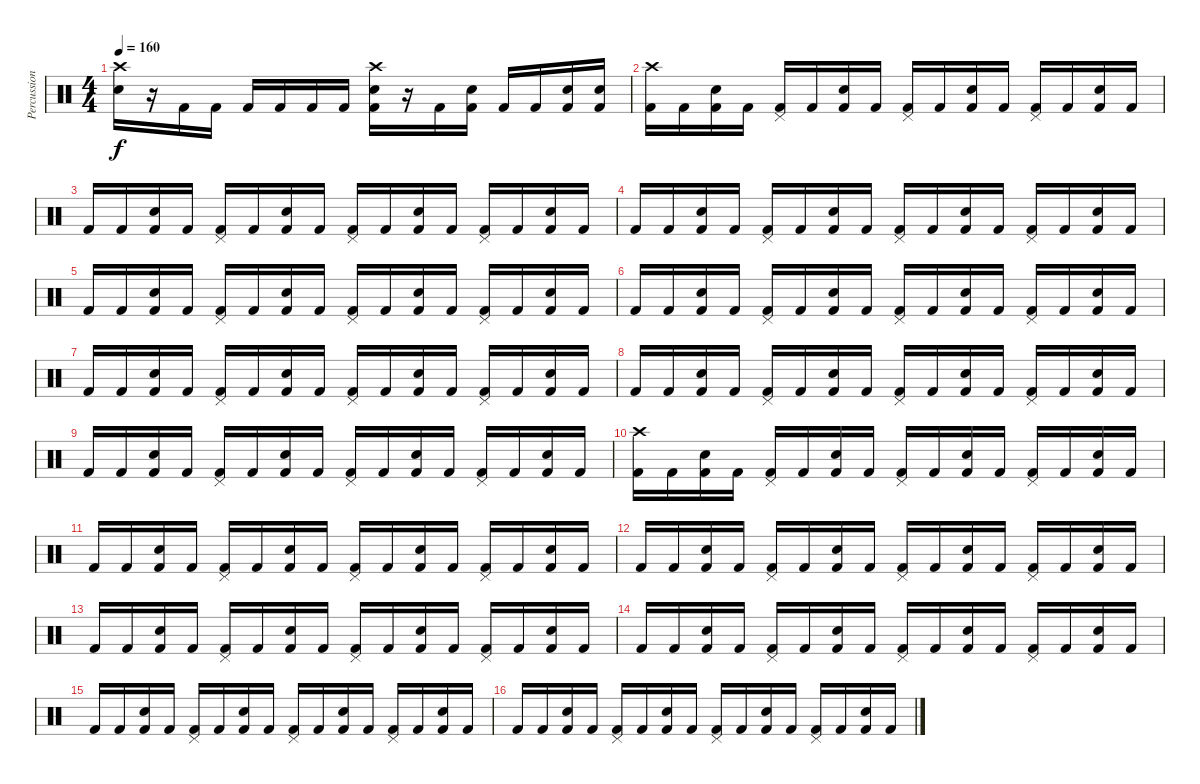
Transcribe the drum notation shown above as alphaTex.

\track ("Percussions" "Percussion") {instrument percussion}
\staff {score}
\articulation defaults
\ts (4 4)
\tempo 160
\clef neutral
\ks c
("Crash high (hit)" "Electric Snare (hit)").16{dy f} r.16 "Kick (hit) 2".16 "Kick (hit) 2".16 "Kick (hit) 2".16 "Kick (hit) 2".16 "Kick (hit) 2".16 "Kick (hit) 2".16 ("Crash high (hit)" "Electric Snare (hit)" "Kick (hit) 2").16 r.16 "Kick (hit) 2".16 ("Electric Snare (hit)" "Kick (hit) 2").16 "Kick (hit) 2".16 "Kick (hit) 2".16 ("Electric Snare (hit)" "Kick (hit) 2").16 ("Electric Snare (hit)" "Kick (hit) 2").16 |
("Kick (hit) 2" "Crash high (hit)").16 "Kick (hit) 2".16 ("Electric Snare (hit)" "Kick (hit) 2").16 "Kick (hit) 2".16 ("Pedal Hi-Hat (hit)" "Kick (hit) 2").16 "Kick (hit) 2".16 ("Electric Snare (hit)" "Kick (hit) 2").16 "Kick (hit) 2".16 ("Pedal Hi-Hat (hit)" "Kick (hit) 2").16 "Kick (hit) 2".16 ("Electric Snare (hit)" "Kick (hit) 2").16 "Kick (hit) 2".16 ("Pedal Hi-Hat (hit)" "Kick (hit) 2").16 "Kick (hit) 2".16 ("Electric Snare (hit)" "Kick (hit) 2").16 "Kick (hit) 2".16 |
"Kick (hit) 2".16 "Kick (hit) 2".16 ("Electric Snare (hit)" "Kick (hit) 2").16 "Kick (hit) 2".16 ("Pedal Hi-Hat (hit)" "Kick (hit) 2").16 "Kick (hit) 2".16 ("Electric Snare (hit)" "Kick (hit) 2").16 "Kick (hit) 2".16 ("Pedal Hi-Hat (hit)" "Kick (hit) 2").16 "Kick (hit) 2".16 ("Electric Snare (hit)" "Kick (hit) 2").16 "Kick (hit) 2".16 ("Pedal Hi-Hat (hit)" "Kick (hit) 2").16 "Kick (hit) 2".16 ("Electric Snare (hit)" "Kick (hit) 2").16 "Kick (hit) 2".16 |
"Kick (hit) 2".16 "Kick (hit) 2".16 ("Electric Snare (hit)" "Kick (hit) 2").16 "Kick (hit) 2".16 ("Pedal Hi-Hat (hit)" "Kick (hit) 2").16 "Kick (hit) 2".16 ("Electric Snare (hit)" "Kick (hit) 2").16 "Kick (hit) 2".16 ("Pedal Hi-Hat (hit)" "Kick (hit) 2").16 "Kick (hit) 2".16 ("Electric Snare (hit)" "Kick (hit) 2").16 "Kick (hit) 2".16 ("Pedal Hi-Hat (hit)" "Kick (hit) 2").16 "Kick (hit) 2".16 ("Electric Snare (hit)" "Kick (hit) 2").16 "Kick (hit) 2".16 |
"Kick (hit) 2".16 "Kick (hit) 2".16 ("Electric Snare (hit)" "Kick (hit) 2").16 "Kick (hit) 2".16 ("Pedal Hi-Hat (hit)" "Kick (hit) 2").16 "Kick (hit) 2".16 ("Electric Snare (hit)" "Kick (hit) 2").16 "Kick (hit) 2".16 ("Pedal Hi-Hat (hit)" "Kick (hit) 2").16 "Kick (hit) 2".16 ("Electric Snare (hit)" "Kick (hit) 2").16 "Kick (hit) 2".16 ("Pedal Hi-Hat (hit)" "Kick (hit) 2").16 "Kick (hit) 2".16 ("Electric Snare (hit)" "Kick (hit) 2").16 "Kick (hit) 2".16 |
"Kick (hit) 2".16 "Kick (hit) 2".16 ("Electric Snare (hit)" "Kick (hit) 2").16 "Kick (hit) 2".16 ("Pedal Hi-Hat (hit)" "Kick (hit) 2").16 "Kick (hit) 2".16 ("Electric Snare (hit)" "Kick (hit) 2").16 "Kick (hit) 2".16 ("Pedal Hi-Hat (hit)" "Kick (hit) 2").16 "Kick (hit) 2".16 ("Electric Snare (hit)" "Kick (hit) 2").16 "Kick (hit) 2".16 ("Pedal Hi-Hat (hit)" "Kick (hit) 2").16 "Kick (hit) 2".16 ("Electric Snare (hit)" "Kick (hit) 2").16 "Kick (hit) 2".16 |
"Kick (hit) 2".16 "Kick (hit) 2".16 ("Electric Snare (hit)" "Kick (hit) 2").16 "Kick (hit) 2".16 ("Pedal Hi-Hat (hit)" "Kick (hit) 2").16 "Kick (hit) 2".16 ("Electric Snare (hit)" "Kick (hit) 2").16 "Kick (hit) 2".16 ("Pedal Hi-Hat (hit)" "Kick (hit) 2").16 "Kick (hit) 2".16 ("Electric Snare (hit)" "Kick (hit) 2").16 "Kick (hit) 2".16 ("Pedal Hi-Hat (hit)" "Kick (hit) 2").16 "Kick (hit) 2".16 ("Electric Snare (hit)" "Kick (hit) 2").16 "Kick (hit) 2".16 |
"Kick (hit) 2".16 "Kick (hit) 2".16 ("Electric Snare (hit)" "Kick (hit) 2").16 "Kick (hit) 2".16 ("Pedal Hi-Hat (hit)" "Kick (hit) 2").16 "Kick (hit) 2".16 ("Electric Snare (hit)" "Kick (hit) 2").16 "Kick (hit) 2".16 ("Pedal Hi-Hat (hit)" "Kick (hit) 2").16 "Kick (hit) 2".16 ("Electric Snare (hit)" "Kick (hit) 2").16 "Kick (hit) 2".16 ("Pedal Hi-Hat (hit)" "Kick (hit) 2").16 "Kick (hit) 2".16 ("Electric Snare (hit)" "Kick (hit) 2").16 "Kick (hit) 2".16 |
"Kick (hit) 2".16 "Kick (hit) 2".16 ("Electric Snare (hit)" "Kick (hit) 2").16 "Kick (hit) 2".16 ("Pedal Hi-Hat (hit)" "Kick (hit) 2").16 "Kick (hit) 2".16 ("Electric Snare (hit)" "Kick (hit) 2").16 "Kick (hit) 2".16 ("Pedal Hi-Hat (hit)" "Kick (hit) 2").16 "Kick (hit) 2".16 ("Electric Snare (hit)" "Kick (hit) 2").16 "Kick (hit) 2".16 ("Pedal Hi-Hat (hit)" "Kick (hit) 2").16 "Kick (hit) 2".16 ("Electric Snare (hit)" "Kick (hit) 2").16 "Kick (hit) 2".16 |
("Kick (hit) 2" "Crash high (hit)").16 "Kick (hit) 2".16 ("Electric Snare (hit)" "Kick (hit) 2").16 "Kick (hit) 2".16 ("Pedal Hi-Hat (hit)" "Kick (hit) 2").16 "Kick (hit) 2".16 ("Electric Snare (hit)" "Kick (hit) 2").16 "Kick (hit) 2".16 ("Pedal Hi-Hat (hit)" "Kick (hit) 2").16 "Kick (hit) 2".16 ("Electric Snare (hit)" "Kick (hit) 2").16 "Kick (hit) 2".16 ("Pedal Hi-Hat (hit)" "Kick (hit) 2").16 "Kick (hit) 2".16 ("Electric Snare (hit)" "Kick (hit) 2").16 "Kick (hit) 2".16 |
"Kick (hit) 2".16 "Kick (hit) 2".16 ("Electric Snare (hit)" "Kick (hit) 2").16 "Kick (hit) 2".16 ("Pedal Hi-Hat (hit)" "Kick (hit) 2").16 "Kick (hit) 2".16 ("Electric Snare (hit)" "Kick (hit) 2").16 "Kick (hit) 2".16 ("Pedal Hi-Hat (hit)" "Kick (hit) 2").16 "Kick (hit) 2".16 ("Electric Snare (hit)" "Kick (hit) 2").16 "Kick (hit) 2".16 ("Pedal Hi-Hat (hit)" "Kick (hit) 2").16 "Kick (hit) 2".16 ("Electric Snare (hit)" "Kick (hit) 2").16 "Kick (hit) 2".16 |
"Kick (hit) 2".16 "Kick (hit) 2".16 ("Electric Snare (hit)" "Kick (hit) 2").16 "Kick (hit) 2".16 ("Pedal Hi-Hat (hit)" "Kick (hit) 2").16 "Kick (hit) 2".16 ("Electric Snare (hit)" "Kick (hit) 2").16 "Kick (hit) 2".16 ("Pedal Hi-Hat (hit)" "Kick (hit) 2").16 "Kick (hit) 2".16 ("Electric Snare (hit)" "Kick (hit) 2").16 "Kick (hit) 2".16 ("Pedal Hi-Hat (hit)" "Kick (hit) 2").16 "Kick (hit) 2".16 ("Electric Snare (hit)" "Kick (hit) 2").16 "Kick (hit) 2".16 |
"Kick (hit) 2".16 "Kick (hit) 2".16 ("Electric Snare (hit)" "Kick (hit) 2").16 "Kick (hit) 2".16 ("Pedal Hi-Hat (hit)" "Kick (hit) 2").16 "Kick (hit) 2".16 ("Electric Snare (hit)" "Kick (hit) 2").16 "Kick (hit) 2".16 ("Pedal Hi-Hat (hit)" "Kick (hit) 2").16 "Kick (hit) 2".16 ("Electric Snare (hit)" "Kick (hit) 2").16 "Kick (hit) 2".16 ("Pedal Hi-Hat (hit)" "Kick (hit) 2").16 "Kick (hit) 2".16 ("Electric Snare (hit)" "Kick (hit) 2").16 "Kick (hit) 2".16 |
"Kick (hit) 2".16 "Kick (hit) 2".16 ("Electric Snare (hit)" "Kick (hit) 2").16 "Kick (hit) 2".16 ("Pedal Hi-Hat (hit)" "Kick (hit) 2").16 "Kick (hit) 2".16 ("Electric Snare (hit)" "Kick (hit) 2").16 "Kick (hit) 2".16 ("Pedal Hi-Hat (hit)" "Kick (hit) 2").16 "Kick (hit) 2".16 ("Electric Snare (hit)" "Kick (hit) 2").16 "Kick (hit) 2".16 ("Pedal Hi-Hat (hit)" "Kick (hit) 2").16 "Kick (hit) 2".16 ("Electric Snare (hit)" "Kick (hit) 2").16 "Kick (hit) 2".16 |
"Kick (hit) 2".16 "Kick (hit) 2".16 ("Electric Snare (hit)" "Kick (hit) 2").16 "Kick (hit) 2".16 ("Pedal Hi-Hat (hit)" "Kick (hit) 2").16 "Kick (hit) 2".16 ("Electric Snare (hit)" "Kick (hit) 2").16 "Kick (hit) 2".16 ("Pedal Hi-Hat (hit)" "Kick (hit) 2").16 "Kick (hit) 2".16 ("Electric Snare (hit)" "Kick (hit) 2").16 "Kick (hit) 2".16 ("Pedal Hi-Hat (hit)" "Kick (hit) 2").16 "Kick (hit) 2".16 ("Electric Snare (hit)" "Kick (hit) 2").16 "Kick (hit) 2".16 |
"Kick (hit) 2".16 "Kick (hit) 2".16 ("Electric Snare (hit)" "Kick (hit) 2").16 "Kick (hit) 2".16 ("Pedal Hi-Hat (hit)" "Kick (hit) 2").16 "Kick (hit) 2".16 ("Electric Snare (hit)" "Kick (hit) 2").16 "Kick (hit) 2".16 ("Pedal Hi-Hat (hit)" "Kick (hit) 2").16 "Kick (hit) 2".16 ("Electric Snare (hit)" "Kick (hit) 2").16 "Kick (hit) 2".16 ("Pedal Hi-Hat (hit)" "Kick (hit) 2").16 "Kick (hit) 2".16 ("Electric Snare (hit)" "Kick (hit) 2").16 "Kick (hit) 2".16
